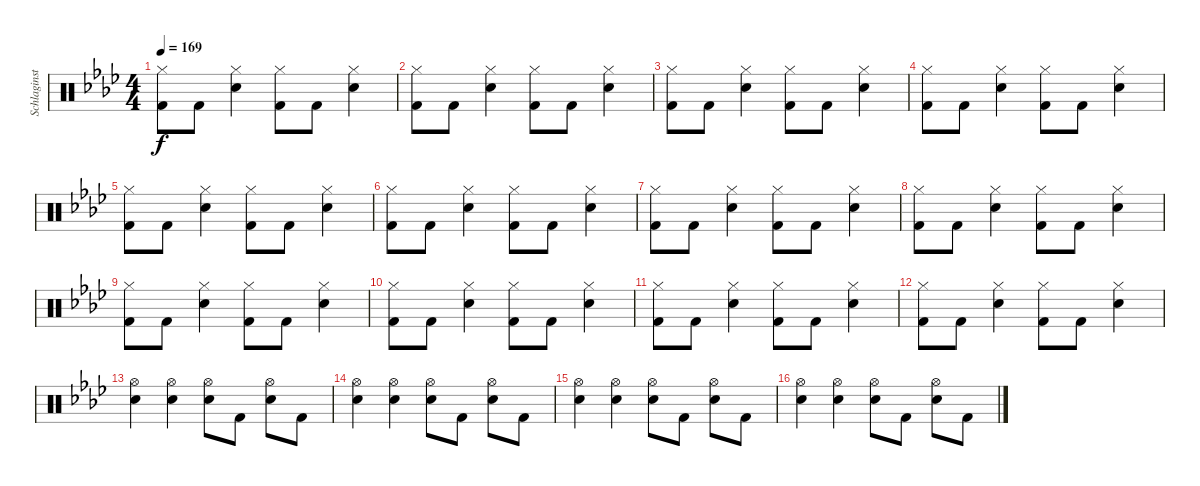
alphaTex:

\track ("Schlaginstrumente - Auswahl" "Schlaginst") {instrument percussion}
\staff {score}
\articulation defaults
\ts (4 4)
\tempo 169
\clef neutral
\ks fminor
("Hi-Hat (closed)" "Kick (hit) 2").8{dy f} "Kick (hit) 2".8 ("Hi-Hat (closed)" "Electric Snare (hit)").4 ("Hi-Hat (closed)" "Kick (hit) 2").8 "Kick (hit) 2".8 ("Hi-Hat (closed)" "Electric Snare (hit)").4 |
("Hi-Hat (closed)" "Kick (hit) 2").8 "Kick (hit) 2".8 ("Hi-Hat (closed)" "Electric Snare (hit)").4 ("Hi-Hat (closed)" "Kick (hit) 2").8 "Kick (hit) 2".8 ("Hi-Hat (closed)" "Electric Snare (hit)").4 |
("Hi-Hat (closed)" "Kick (hit) 2").8 "Kick (hit) 2".8 ("Hi-Hat (closed)" "Electric Snare (hit)").4 ("Hi-Hat (closed)" "Kick (hit) 2").8 "Kick (hit) 2".8 ("Hi-Hat (closed)" "Electric Snare (hit)").4 |
("Hi-Hat (closed)" "Kick (hit) 2").8 "Kick (hit) 2".8 ("Hi-Hat (closed)" "Electric Snare (hit)").4 ("Hi-Hat (closed)" "Kick (hit) 2").8 "Kick (hit) 2".8 ("Hi-Hat (closed)" "Electric Snare (hit)").4 |
("Hi-Hat (closed)" "Kick (hit) 2").8 "Kick (hit) 2".8 ("Hi-Hat (closed)" "Electric Snare (hit)").4 ("Hi-Hat (closed)" "Kick (hit) 2").8 "Kick (hit) 2".8 ("Hi-Hat (closed)" "Electric Snare (hit)").4 |
("Hi-Hat (closed)" "Kick (hit) 2").8 "Kick (hit) 2".8 ("Hi-Hat (closed)" "Electric Snare (hit)").4 ("Hi-Hat (closed)" "Kick (hit) 2").8 "Kick (hit) 2".8 ("Hi-Hat (closed)" "Electric Snare (hit)").4 |
("Hi-Hat (closed)" "Kick (hit) 2").8 "Kick (hit) 2".8 ("Hi-Hat (closed)" "Electric Snare (hit)").4 ("Hi-Hat (closed)" "Kick (hit) 2").8 "Kick (hit) 2".8 ("Hi-Hat (closed)" "Electric Snare (hit)").4 |
("Hi-Hat (closed)" "Kick (hit) 2").8 "Kick (hit) 2".8 ("Hi-Hat (closed)" "Electric Snare (hit)").4 ("Hi-Hat (closed)" "Kick (hit) 2").8 "Kick (hit) 2".8 ("Hi-Hat (closed)" "Electric Snare (hit)").4 |
("Hi-Hat (closed)" "Kick (hit) 2").8 "Kick (hit) 2".8 ("Hi-Hat (closed)" "Electric Snare (hit)").4 ("Hi-Hat (closed)" "Kick (hit) 2").8 "Kick (hit) 2".8 ("Hi-Hat (closed)" "Electric Snare (hit)").4 |
("Hi-Hat (closed)" "Kick (hit) 2").8 "Kick (hit) 2".8 ("Hi-Hat (closed)" "Electric Snare (hit)").4 ("Hi-Hat (closed)" "Kick (hit) 2").8 "Kick (hit) 2".8 ("Hi-Hat (closed)" "Electric Snare (hit)").4 |
("Hi-Hat (closed)" "Kick (hit) 2").8 "Kick (hit) 2".8 ("Hi-Hat (closed)" "Electric Snare (hit)").4 ("Hi-Hat (closed)" "Kick (hit) 2").8 "Kick (hit) 2".8 ("Hi-Hat (closed)" "Electric Snare (hit)").4 |
("Hi-Hat (closed)" "Kick (hit) 2").8 "Kick (hit) 2".8 ("Hi-Hat (closed)" "Electric Snare (hit)").4 ("Hi-Hat (closed)" "Kick (hit) 2").8 "Kick (hit) 2".8 ("Hi-Hat (closed)" "Electric Snare (hit)").4 |
("Hi-Hat (open)" "Electric Snare (hit)").4 ("Hi-Hat (open)" "Electric Snare (hit)").4 ("Hi-Hat (open)" "Electric Snare (hit)").8 "Kick (hit) 2".8 ("Hi-Hat (open)" "Electric Snare (hit)").8 "Kick (hit) 2".8 |
("Hi-Hat (open)" "Electric Snare (hit)").4 ("Hi-Hat (open)" "Electric Snare (hit)").4 ("Hi-Hat (open)" "Electric Snare (hit)").8 "Kick (hit) 2".8 ("Hi-Hat (open)" "Electric Snare (hit)").8 "Kick (hit) 2".8 |
("Hi-Hat (open)" "Electric Snare (hit)").4 ("Hi-Hat (open)" "Electric Snare (hit)").4 ("Hi-Hat (open)" "Electric Snare (hit)").8 "Kick (hit) 2".8 ("Hi-Hat (open)" "Electric Snare (hit)").8 "Kick (hit) 2".8 |
("Hi-Hat (open)" "Electric Snare (hit)").4 ("Hi-Hat (open)" "Electric Snare (hit)").4 ("Hi-Hat (open)" "Electric Snare (hit)").8 "Kick (hit) 2".8 ("Hi-Hat (open)" "Electric Snare (hit)").8 "Kick (hit) 2".8
